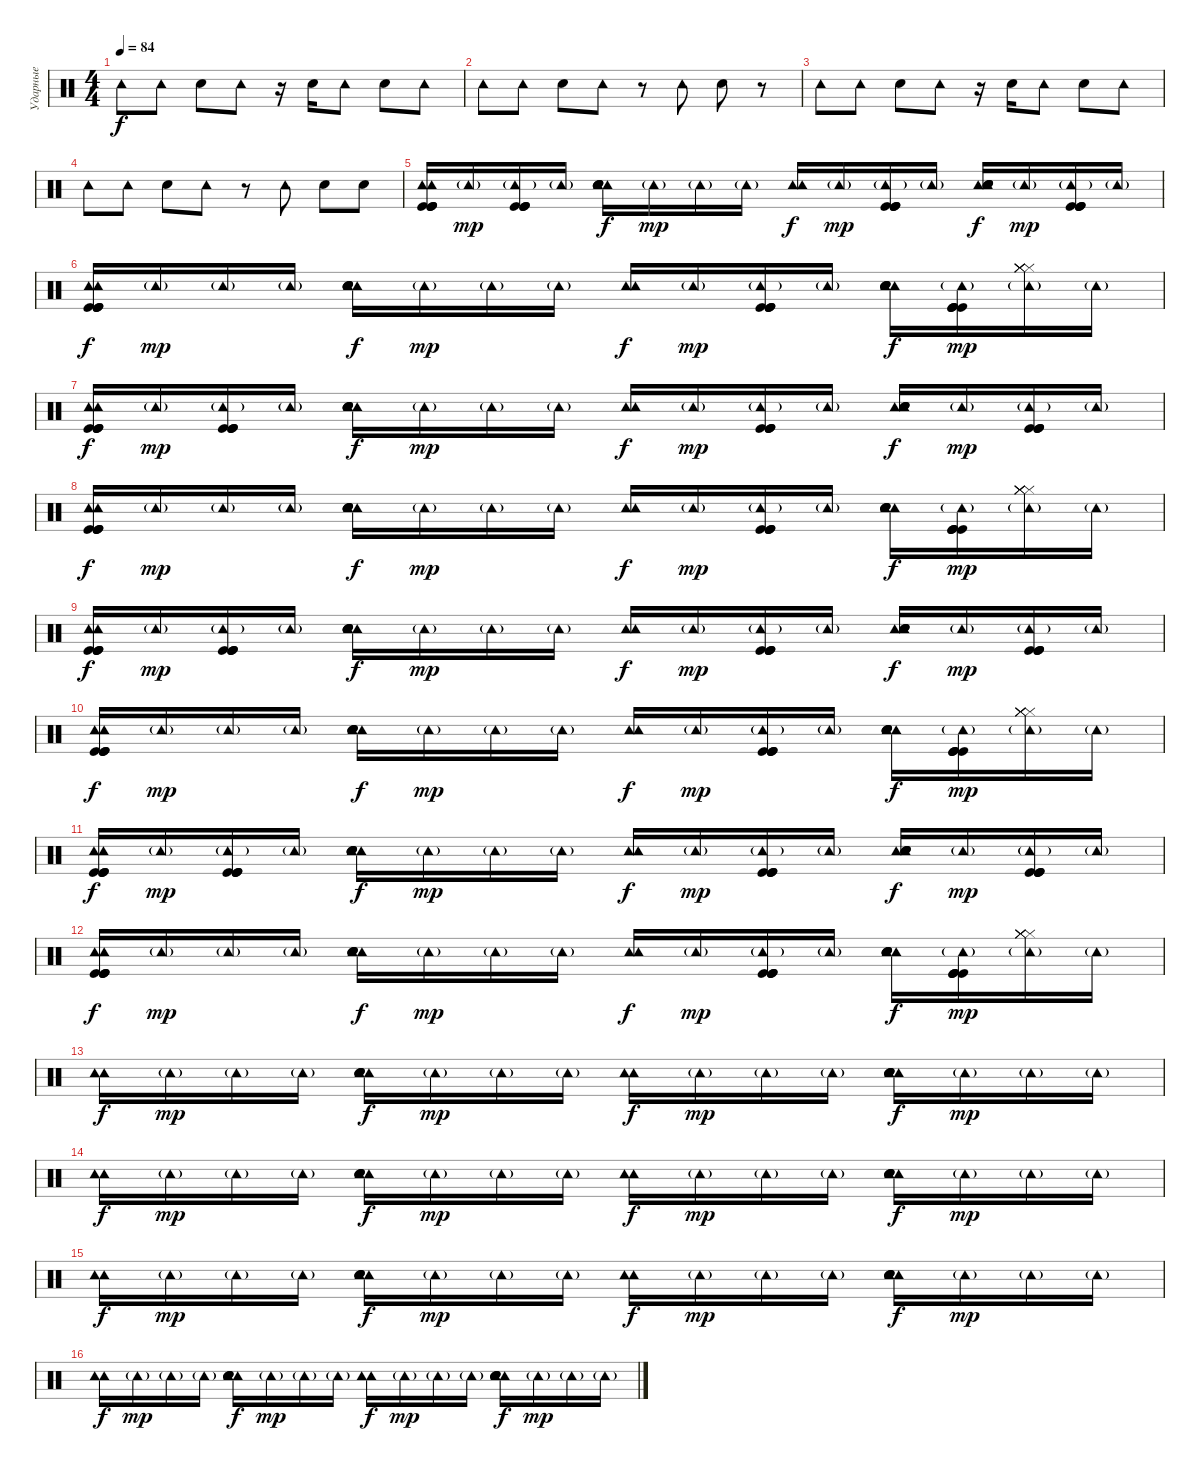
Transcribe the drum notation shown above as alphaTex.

\track ("Ударные" "Ударные") {instrument percussion}
\staff {score}
\articulation defaults
\ts (4 4)
\tempo 84
\clef neutral
\ks c "Tambourine (hit)".8{dy f} "Tambourine (hit)".8 "Hand Clap (hit)".8 "Tambourine (hit)".8
r.16 "Hand Clap (hit)".16 "Tambourine (hit)".8 "Hand Clap (hit)".8 "Tambourine (hit)".8 |
"Tambourine (hit)".8 "Tambourine (hit)".8 "Hand Clap (hit)".8 "Tambourine (hit)".8 r.8 "Tambourine (hit)".8 "Hand Clap (hit)".8 r.8 |
"Tambourine (hit)".8 "Tambourine (hit)".8 "Hand Clap (hit)".8 "Tambourine (hit)".8 r.16 "Hand Clap (hit)".16 "Tambourine (hit)".8 "Hand Clap (hit)".8 "Tambourine (hit)".8 |
"Tambourine (hit)".8 "Tambourine (hit)".8 "Hand Clap (hit)".8 "Tambourine (hit)".8 r.8 "Tambourine (hit)".8 "Hand Clap (hit)".8 "Hand Clap (hit)".8 |
("Tambourine (hit)" "Tambourine (hit)" "Kick (hit)" "Kick (hit)" "Kick (hit)" "Kick (hit)").16 "Tambourine (hit)"{g}.16{dy mp} ("Tambourine (hit)"{g} "Kick (hit)" "Kick (hit)" "Kick (hit)" "Kick (hit)").16 "Tambourine (hit)"{g}.16 ("Tambourine (hit)" "Metronome (bell)" "Snare (hit)" "Snare (hit)" "Tambourine (hit)").16{dy f} "Tambourine (hit)"{g}.16{dy mp} "Tambourine (hit)"{g}.16 "Tambourine (hit)"{g}.16 ("Tambourine (hit)" "Tambourine (hit)").16{dy f} "Tambourine (hit)"{g}.16{dy mp} ("Tambourine (hit)"{g} "Kick (hit)" "Kick (hit)" "Kick (hit)" "Kick (hit)").16 "Tambourine (hit)"{g}.16 ("Tambourine (hit)" "Metronome (bell)" "Snare (hit)" "Snare (hit)" "Tambourine (hit)").16{dy f} "Tambourine (hit)"{g}.16{dy mp} ("Tambourine (hit)"{g} "Kick (hit)" "Kick (hit)" "Kick (hit)" "Kick (hit)").16 "Tambourine (hit)"{g}.16 |
("Tambourine (hit)" "Tambourine (hit)" "Kick (hit)" "Kick (hit)" "Kick (hit)" "Kick (hit)").16{dy f} "Tambourine (hit)"{g}.16{dy mp} "Tambourine (hit)"{g}.16 "Tambourine (hit)"{g}.16 ("Tambourine (hit)" "Metronome (bell)" "Snare (hit)" "Snare (hit)" "Tambourine (hit)").16{dy f} "Tambourine (hit)"{g}.16{dy mp} "Tambourine (hit)"{g}.16 "Tambourine (hit)"{g}.16 ("Tambourine (hit)" "Tambourine (hit)").16{dy f} "Tambourine (hit)"{g}.16{dy mp} ("Tambourine (hit)"{g} "Kick (hit)" "Kick (hit)" "Kick (hit)" "Kick (hit)").16 "Tambourine (hit)"{g}.16 ("Tambourine (hit)" "Metronome (bell)" "Snare (hit)" "Snare (hit)" "Tambourine (hit)").16{dy f} ("Tambourine (hit)"{g} "Kick (hit)" "Kick (hit)" "Kick (hit)" "Kick (hit)").16{dy mp} ("Tambourine (hit)"{g} "Hi-Hat (closed)" "Hi-Hat (closed)" "Hi-Hat (closed)" "Hi-Hat (closed)" "Hi-Hat (closed)").16 "Tambourine (hit)"{g}.16 |
("Tambourine (hit)" "Tambourine (hit)" "Kick (hit)" "Kick (hit)" "Kick (hit)" "Kick (hit)").16{dy f} "Tambourine (hit)"{g}.16{dy mp} ("Tambourine (hit)"{g} "Kick (hit)" "Kick (hit)" "Kick (hit)" "Kick (hit)").16 "Tambourine (hit)"{g}.16 ("Tambourine (hit)" "Metronome (bell)" "Snare (hit)" "Snare (hit)" "Tambourine (hit)").16{dy f} "Tambourine (hit)"{g}.16{dy mp} "Tambourine (hit)"{g}.16 "Tambourine (hit)"{g}.16 ("Tambourine (hit)" "Tambourine (hit)").16{dy f} "Tambourine (hit)"{g}.16{dy mp} ("Tambourine (hit)"{g} "Kick (hit)" "Kick (hit)" "Kick (hit)" "Kick (hit)").16 "Tambourine (hit)"{g}.16 ("Tambourine (hit)" "Metronome (bell)" "Snare (hit)" "Snare (hit)" "Tambourine (hit)").16{dy f} "Tambourine (hit)"{g}.16{dy mp} ("Tambourine (hit)"{g} "Kick (hit)" "Kick (hit)" "Kick (hit)" "Kick (hit)").16 "Tambourine (hit)"{g}.16 |
("Tambourine (hit)" "Tambourine (hit)" "Kick (hit)" "Kick (hit)" "Kick (hit)" "Kick (hit)").16{dy f} "Tambourine (hit)"{g}.16{dy mp} "Tambourine (hit)"{g}.16 "Tambourine (hit)"{g}.16 ("Tambourine (hit)" "Metronome (bell)" "Snare (hit)" "Snare (hit)" "Tambourine (hit)").16{dy f} "Tambourine (hit)"{g}.16{dy mp} "Tambourine (hit)"{g}.16 "Tambourine (hit)"{g}.16 ("Tambourine (hit)" "Tambourine (hit)").16{dy f} "Tambourine (hit)"{g}.16{dy mp} ("Tambourine (hit)"{g} "Kick (hit)" "Kick (hit)" "Kick (hit)" "Kick (hit)").16 "Tambourine (hit)"{g}.16 ("Tambourine (hit)" "Metronome (bell)" "Snare (hit)" "Snare (hit)" "Tambourine (hit)").16{dy f} ("Tambourine (hit)"{g} "Kick (hit)" "Kick (hit)" "Kick (hit)" "Kick (hit)").16{dy mp} ("Tambourine (hit)"{g} "Hi-Hat (closed)" "Hi-Hat (closed)" "Hi-Hat (closed)" "Hi-Hat (closed)" "Hi-Hat (closed)").16 "Tambourine (hit)"{g}.16 |
("Tambourine (hit)" "Tambourine (hit)" "Kick (hit)" "Kick (hit)" "Kick (hit)" "Kick (hit)").16{dy f} "Tambourine (hit)"{g}.16{dy mp} ("Tambourine (hit)"{g} "Kick (hit)" "Kick (hit)" "Kick (hit)" "Kick (hit)").16 "Tambourine (hit)"{g}.16 ("Tambourine (hit)" "Metronome (bell)" "Snare (hit)" "Snare (hit)" "Tambourine (hit)").16{dy f} "Tambourine (hit)"{g}.16{dy mp} "Tambourine (hit)"{g}.16 "Tambourine (hit)"{g}.16 ("Tambourine (hit)" "Tambourine (hit)").16{dy f} "Tambourine (hit)"{g}.16{dy mp} ("Tambourine (hit)"{g} "Kick (hit)" "Kick (hit)" "Kick (hit)" "Kick (hit)").16 "Tambourine (hit)"{g}.16 ("Tambourine (hit)" "Metronome (bell)" "Snare (hit)" "Snare (hit)" "Tambourine (hit)").16{dy f} "Tambourine (hit)"{g}.16{dy mp} ("Tambourine (hit)"{g} "Kick (hit)" "Kick (hit)" "Kick (hit)" "Kick (hit)").16 "Tambourine (hit)"{g}.16 |
("Tambourine (hit)" "Tambourine (hit)" "Kick (hit)" "Kick (hit)" "Kick (hit)" "Kick (hit)").16{dy f} "Tambourine (hit)"{g}.16{dy mp} "Tambourine (hit)"{g}.16 "Tambourine (hit)"{g}.16 ("Tambourine (hit)" "Metronome (bell)" "Snare (hit)" "Snare (hit)" "Tambourine (hit)").16{dy f} "Tambourine (hit)"{g}.16{dy mp} "Tambourine (hit)"{g}.16 "Tambourine (hit)"{g}.16 ("Tambourine (hit)" "Tambourine (hit)").16{dy f} "Tambourine (hit)"{g}.16{dy mp} ("Tambourine (hit)"{g} "Kick (hit)" "Kick (hit)" "Kick (hit)" "Kick (hit)").16 "Tambourine (hit)"{g}.16 ("Tambourine (hit)" "Metronome (bell)" "Snare (hit)" "Snare (hit)" "Tambourine (hit)").16{dy f} ("Tambourine (hit)"{g} "Kick (hit)" "Kick (hit)" "Kick (hit)" "Kick (hit)").16{dy mp} ("Tambourine (hit)"{g} "Hi-Hat (closed)" "Hi-Hat (closed)" "Hi-Hat (closed)" "Hi-Hat (closed)" "Hi-Hat (closed)").16 "Tambourine (hit)"{g}.16 |
("Tambourine (hit)" "Tambourine (hit)" "Kick (hit)" "Kick (hit)" "Kick (hit)" "Kick (hit)").16{dy f} "Tambourine (hit)"{g}.16{dy mp} ("Tambourine (hit)"{g} "Kick (hit)" "Kick (hit)" "Kick (hit)" "Kick (hit)").16 "Tambourine (hit)"{g}.16 ("Tambourine (hit)" "Metronome (bell)" "Snare (hit)" "Snare (hit)" "Tambourine (hit)").16{dy f} "Tambourine (hit)"{g}.16{dy mp} "Tambourine (hit)"{g}.16 "Tambourine (hit)"{g}.16 ("Tambourine (hit)" "Tambourine (hit)").16{dy f} "Tambourine (hit)"{g}.16{dy mp} ("Tambourine (hit)"{g} "Kick (hit)" "Kick (hit)" "Kick (hit)" "Kick (hit)").16 "Tambourine (hit)"{g}.16 ("Tambourine (hit)" "Metronome (bell)" "Snare (hit)" "Snare (hit)" "Tambourine (hit)").16{dy f} "Tambourine (hit)"{g}.16{dy mp} ("Tambourine (hit)"{g} "Kick (hit)" "Kick (hit)" "Kick (hit)" "Kick (hit)").16 "Tambourine (hit)"{g}.16 |
("Tambourine (hit)" "Tambourine (hit)" "Kick (hit)" "Kick (hit)" "Kick (hit)" "Kick (hit)").16{dy f} "Tambourine (hit)"{g}.16{dy mp} "Tambourine (hit)"{g}.16 "Tambourine (hit)"{g}.16 ("Tambourine (hit)" "Metronome (bell)" "Snare (hit)" "Snare (hit)" "Tambourine (hit)").16{dy f} "Tambourine (hit)"{g}.16{dy mp} "Tambourine (hit)"{g}.16 "Tambourine (hit)"{g}.16 ("Tambourine (hit)" "Tambourine (hit)").16{dy f} "Tambourine (hit)"{g}.16{dy mp} ("Tambourine (hit)"{g} "Kick (hit)" "Kick (hit)" "Kick (hit)" "Kick (hit)").16 "Tambourine (hit)"{g}.16 ("Tambourine (hit)" "Metronome (bell)" "Snare (hit)" "Snare (hit)" "Tambourine (hit)").16{dy f} ("Tambourine (hit)"{g} "Kick (hit)" "Kick (hit)" "Kick (hit)" "Kick (hit)").16{dy mp} ("Tambourine (hit)"{g} "Hi-Hat (closed)" "Hi-Hat (closed)" "Hi-Hat (closed)" "Hi-Hat (closed)" "Hi-Hat (closed)").16 "Tambourine (hit)"{g}.16 |
("Tambourine (hit)" "Tambourine (hit)").16{dy f} "Tambourine (hit)"{g}.16{dy mp} "Tambourine (hit)"{g}.16 "Tambourine (hit)"{g}.16 ("Tambourine (hit)" "Snare (hit)" "Snare (hit)" "Snare (hit)" "Tambourine (hit)").16{dy f} "Tambourine (hit)"{g}.16{dy mp} "Tambourine (hit)"{g}.16 "Tambourine (hit)"{g}.16 ("Tambourine (hit)" "Tambourine (hit)").16{dy f} "Tambourine (hit)"{g}.16{dy mp} "Tambourine (hit)"{g}.16 "Tambourine (hit)"{g}.16 ("Tambourine (hit)" "Snare (hit)" "Snare (hit)" "Snare (hit)" "Tambourine (hit)").16{dy f} "Tambourine (hit)"{g}.16{dy mp} "Tambourine (hit)"{g}.16 "Tambourine (hit)"{g}.16 |
("Tambourine (hit)" "Tambourine (hit)").16{dy f} "Tambourine (hit)"{g}.16{dy mp} "Tambourine (hit)"{g}.16 "Tambourine (hit)"{g}.16 ("Tambourine (hit)" "Snare (hit)" "Snare (hit)" "Snare (hit)" "Tambourine (hit)").16{dy f} "Tambourine (hit)"{g}.16{dy mp} "Tambourine (hit)"{g}.16 "Tambourine (hit)"{g}.16 ("Tambourine (hit)" "Tambourine (hit)").16{dy f} "Tambourine (hit)"{g}.16{dy mp} "Tambourine (hit)"{g}.16 "Tambourine (hit)"{g}.16 ("Tambourine (hit)" "Snare (hit)" "Snare (hit)" "Snare (hit)" "Tambourine (hit)").16{dy f} "Tambourine (hit)"{g}.16{dy mp} "Tambourine (hit)"{g}.16 "Tambourine (hit)"{g}.16 |
("Tambourine (hit)" "Tambourine (hit)").16{dy f} "Tambourine (hit)"{g}.16{dy mp} "Tambourine (hit)"{g}.16 "Tambourine (hit)"{g}.16 ("Tambourine (hit)" "Snare (hit)" "Snare (hit)" "Snare (hit)" "Tambourine (hit)").16{dy f} "Tambourine (hit)"{g}.16{dy mp} "Tambourine (hit)"{g}.16 "Tambourine (hit)"{g}.16 ("Tambourine (hit)" "Tambourine (hit)").16{dy f} "Tambourine (hit)"{g}.16{dy mp} "Tambourine (hit)"{g}.16 "Tambourine (hit)"{g}.16 ("Tambourine (hit)" "Snare (hit)" "Snare (hit)" "Snare (hit)" "Tambourine (hit)").16{dy f} "Tambourine (hit)"{g}.16{dy mp} "Tambourine (hit)"{g}.16 "Tambourine (hit)"{g}.16 |
("Tambourine (hit)" "Tambourine (hit)").16{dy f} "Tambourine (hit)"{g}.16{dy mp} "Tambourine (hit)"{g}.16 "Tambourine (hit)"{g}.16 ("Tambourine (hit)" "Snare (hit)" "Snare (hit)" "Snare (hit)" "Tambourine (hit)").16{dy f} "Tambourine (hit)"{g}.16{dy mp} "Tambourine (hit)"{g}.16 "Tambourine (hit)"{g}.16 ("Tambourine (hit)" "Tambourine (hit)").16{dy f} "Tambourine (hit)"{g}.16{dy mp} "Tambourine (hit)"{g}.16 "Tambourine (hit)"{g}.16 ("Tambourine (hit)" "Snare (hit)" "Snare (hit)" "Snare (hit)" "Tambourine (hit)").16{dy f} "Tambourine (hit)"{g}.16{dy mp} "Tambourine (hit)"{g}.16 "Tambourine (hit)"{g}.16
